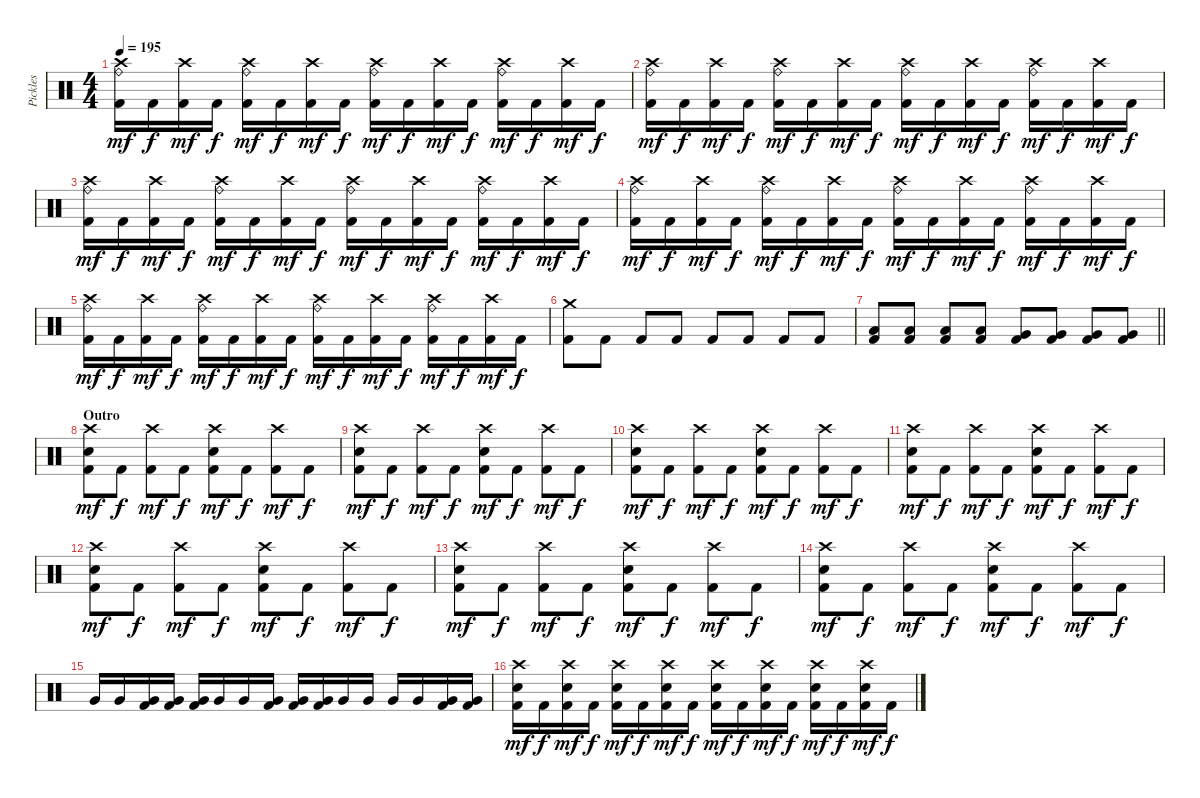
\track ("Pickles" "Pickles") {instrument percussion}
\staff {score}
\articulation defaults
\ts (4 4)
\tempo 195
\clef neutral
\ks aminor
("Ride (bell)" "Crash high (hit)" "Kick (hit) 2").16{dy mf} "Kick (hit) 2".16{dy f} ("Crash high (hit)" "Kick (hit) 2").16{dy mf} "Kick (hit) 2".16{dy f} ("Ride (bell)" "Crash high (hit)" "Kick (hit) 2").16{dy mf} "Kick (hit) 2".16{dy f} ("Crash high (hit)" "Kick (hit) 2").16{dy mf} "Kick (hit) 2".16{dy f} ("Ride (bell)" "Crash high (hit)" "Kick (hit) 2").16{dy mf} "Kick (hit) 2".16{dy f} ("Crash high (hit)" "Kick (hit) 2").16{dy mf} "Kick (hit) 2".16{dy f} ("Ride (bell)" "Crash high (hit)" "Kick (hit) 2").16{dy mf} "Kick (hit) 2".16{dy f} ("Crash high (hit)" "Kick (hit) 2").16{dy mf} "Kick (hit) 2".16{dy f} |
("Ride (bell)" "Crash high (hit)" "Kick (hit) 2").16{dy mf} "Kick (hit) 2".16{dy f} ("Crash high (hit)" "Kick (hit) 2").16{dy mf} "Kick (hit) 2".16{dy f} ("Ride (bell)" "Crash high (hit)" "Kick (hit) 2").16{dy mf} "Kick (hit) 2".16{dy f} ("Crash high (hit)" "Kick (hit) 2").16{dy mf} "Kick (hit) 2".16{dy f} ("Ride (bell)" "Crash high (hit)" "Kick (hit) 2").16{dy mf} "Kick (hit) 2".16{dy f} ("Crash high (hit)" "Kick (hit) 2").16{dy mf} "Kick (hit) 2".16{dy f} ("Ride (bell)" "Crash high (hit)" "Kick (hit) 2").16{dy mf} "Kick (hit) 2".16{dy f} ("Crash high (hit)" "Kick (hit) 2").16{dy mf} "Kick (hit) 2".16{dy f} |
("Ride (bell)" "Crash high (hit)" "Kick (hit) 2").16{dy mf} "Kick (hit) 2".16{dy f} ("Crash high (hit)" "Kick (hit) 2").16{dy mf} "Kick (hit) 2".16{dy f} ("Ride (bell)" "Crash high (hit)" "Kick (hit) 2").16{dy mf} "Kick (hit) 2".16{dy f} ("Crash high (hit)" "Kick (hit) 2").16{dy mf} "Kick (hit) 2".16{dy f} ("Ride (bell)" "Crash high (hit)" "Kick (hit) 2").16{dy mf} "Kick (hit) 2".16{dy f} ("Crash high (hit)" "Kick (hit) 2").16{dy mf} "Kick (hit) 2".16{dy f} ("Ride (bell)" "Crash high (hit)" "Kick (hit) 2").16{dy mf} "Kick (hit) 2".16{dy f} ("Crash high (hit)" "Kick (hit) 2").16{dy mf} "Kick (hit) 2".16{dy f} |
("Ride (bell)" "Crash high (hit)" "Kick (hit) 2").16{dy mf} "Kick (hit) 2".16{dy f} ("Crash high (hit)" "Kick (hit) 2").16{dy mf} "Kick (hit) 2".16{dy f} ("Ride (bell)" "Crash high (hit)" "Kick (hit) 2").16{dy mf} "Kick (hit) 2".16{dy f} ("Crash high (hit)" "Kick (hit) 2").16{dy mf} "Kick (hit) 2".16{dy f} ("Ride (bell)" "Crash high (hit)" "Kick (hit) 2").16{dy mf} "Kick (hit) 2".16{dy f} ("Crash high (hit)" "Kick (hit) 2").16{dy mf} "Kick (hit) 2".16{dy f} ("Ride (bell)" "Crash high (hit)" "Kick (hit) 2").16{dy mf} "Kick (hit) 2".16{dy f} ("Crash high (hit)" "Kick (hit) 2").16{dy mf} "Kick (hit) 2".16{dy f} |
("Ride (bell)" "Crash high (hit)" "Kick (hit) 2").16{dy mf} "Kick (hit) 2".16{dy f} ("Crash high (hit)" "Kick (hit) 2").16{dy mf} "Kick (hit) 2".16{dy f} ("Ride (bell)" "Crash high (hit)" "Kick (hit) 2").16{dy mf} "Kick (hit) 2".16{dy f} ("Crash high (hit)" "Kick (hit) 2").16{dy mf} "Kick (hit) 2".16{dy f} ("Ride (bell)" "Crash high (hit)" "Kick (hit) 2").16{dy mf} "Kick (hit) 2".16{dy f} ("Crash high (hit)" "Kick (hit) 2").16{dy mf} "Kick (hit) 2".16{dy f} ("Ride (bell)" "Crash high (hit)" "Kick (hit) 2").16{dy mf} "Kick (hit) 2".16{dy f} ("Crash high (hit)" "Kick (hit) 2").16{dy mf} "Kick (hit) 2".16{dy f} |
("Crash medium (hit)" "Kick (hit) 2").8 "Kick (hit) 2".8 "Kick (hit) 2".8 "Kick (hit) 2".8 "Kick (hit) 2".8 "Kick (hit) 2".8 "Kick (hit) 2".8 "Kick (hit) 2".8 |
\barLineRight lightlight
("Low Tom (hit)" "Kick (hit) 2").8 ("Low Tom (hit)" "Kick (hit) 2").8 ("Low Tom (hit)" "Kick (hit) 2").8 ("Low Tom (hit)" "Kick (hit) 2").8 ("Very Low Tom (hit)" "Kick (hit) 2").8 ("Very Low Tom (hit)" "Kick (hit) 2").8 ("Very Low Tom (hit)" "Kick (hit) 2").8 ("Very Low Tom (hit)" "Kick (hit) 2").8 |
\section ("" "Outro")
("Crash high (hit)" "Snare (hit) 2" "Kick (hit) 2").8{dy mf} "Kick (hit) 2".8{dy f} ("Crash high (hit)" "Kick (hit) 2").8{dy mf} "Kick (hit) 2".8{dy f} ("Crash high (hit)" "Snare (hit) 2" "Kick (hit) 2").8{dy mf} "Kick (hit) 2".8{dy f} ("Crash high (hit)" "Kick (hit) 2").8{dy mf} "Kick (hit) 2".8{dy f} |
("Crash high (hit)" "Snare (hit) 2" "Kick (hit) 2").8{dy mf} "Kick (hit) 2".8{dy f} ("Crash high (hit)" "Kick (hit) 2").8{dy mf} "Kick (hit) 2".8{dy f} ("Crash high (hit)" "Snare (hit) 2" "Kick (hit) 2").8{dy mf} "Kick (hit) 2".8{dy f} ("Crash high (hit)" "Kick (hit) 2").8{dy mf} "Kick (hit) 2".8{dy f} |
("Crash high (hit)" "Snare (hit) 2" "Kick (hit) 2").8{dy mf} "Kick (hit) 2".8{dy f} ("Crash high (hit)" "Kick (hit) 2").8{dy mf} "Kick (hit) 2".8{dy f} ("Crash high (hit)" "Snare (hit) 2" "Kick (hit) 2").8{dy mf} "Kick (hit) 2".8{dy f} ("Crash high (hit)" "Kick (hit) 2").8{dy mf} "Kick (hit) 2".8{dy f} |
("Crash high (hit)" "Snare (hit) 2" "Kick (hit) 2").8{dy mf} "Kick (hit) 2".8{dy f} ("Crash high (hit)" "Kick (hit) 2").8{dy mf} "Kick (hit) 2".8{dy f} ("Crash high (hit)" "Snare (hit) 2" "Kick (hit) 2").8{dy mf} "Kick (hit) 2".8{dy f} ("Crash high (hit)" "Kick (hit) 2").8{dy mf} "Kick (hit) 2".8{dy f} |
("Crash high (hit)" "Snare (hit) 2" "Kick (hit) 2").8{dy mf} "Kick (hit) 2".8{dy f} ("Crash high (hit)" "Kick (hit) 2").8{dy mf} "Kick (hit) 2".8{dy f} ("Crash high (hit)" "Snare (hit) 2" "Kick (hit) 2").8{dy mf} "Kick (hit) 2".8{dy f} ("Crash high (hit)" "Kick (hit) 2").8{dy mf} "Kick (hit) 2".8{dy f} |
("Crash high (hit)" "Snare (hit) 2" "Kick (hit) 2").8{dy mf} "Kick (hit) 2".8{dy f} ("Crash high (hit)" "Kick (hit) 2").8{dy mf} "Kick (hit) 2".8{dy f} ("Crash high (hit)" "Snare (hit) 2" "Kick (hit) 2").8{dy mf} "Kick (hit) 2".8{dy f} ("Crash high (hit)" "Kick (hit) 2").8{dy mf} "Kick (hit) 2".8{dy f} |
("Crash high (hit)" "Snare (hit) 2" "Kick (hit) 2").8{dy mf} "Kick (hit) 2".8{dy f} ("Crash high (hit)" "Kick (hit) 2").8{dy mf} "Kick (hit) 2".8{dy f} ("Crash high (hit)" "Snare (hit) 2" "Kick (hit) 2").8{dy mf} "Kick (hit) 2".8{dy f} ("Crash high (hit)" "Kick (hit) 2").8{dy mf} "Kick (hit) 2".8{dy f} |
"Very Low Tom (hit)".16 "Very Low Tom (hit)".16 ("Very Low Tom (hit)" "Kick (hit) 2").16 ("Very Low Tom (hit)" "Kick (hit) 2").16 ("Very Low Tom (hit)" "Kick (hit) 2").16 "Very Low Tom (hit)".16 "Very Low Tom (hit)".16 ("Very Low Tom (hit)" "Kick (hit) 2").16 ("Very Low Tom (hit)" "Kick (hit) 2").16 ("Very Low Tom (hit)" "Kick (hit) 2").16 "Very Low Tom (hit)".16 "Very Low Tom (hit)".16 "Very Low Tom (hit)".16 "Very Low Tom (hit)".16 ("Very Low Tom (hit)" "Kick (hit) 2").16 ("Very Low Tom (hit)" "Kick (hit) 2").16 |
("Crash high (hit)" "Snare (hit) 2" "Kick (hit) 2").16{dy mf} "Kick (hit) 2".16{dy f} ("Crash high (hit)" "Snare (hit) 2" "Kick (hit) 2").16{dy mf} "Kick (hit) 2".16{dy f} ("Crash high (hit)" "Snare (hit) 2" "Kick (hit) 2").16{dy mf} "Kick (hit) 2".16{dy f} ("Crash high (hit)" "Snare (hit) 2" "Kick (hit) 2").16{dy mf} "Kick (hit) 2".16{dy f} ("Crash high (hit)" "Snare (hit) 2" "Kick (hit) 2").16{dy mf} "Kick (hit) 2".16{dy f} ("Crash high (hit)" "Snare (hit) 2" "Kick (hit) 2").16{dy mf} "Kick (hit) 2".16{dy f} ("Crash high (hit)" "Snare (hit) 2" "Kick (hit) 2").16{dy mf} "Kick (hit) 2".16{dy f} ("Crash high (hit)" "Snare (hit) 2" "Kick (hit) 2").16{dy mf} "Kick (hit) 2".16{dy f}
